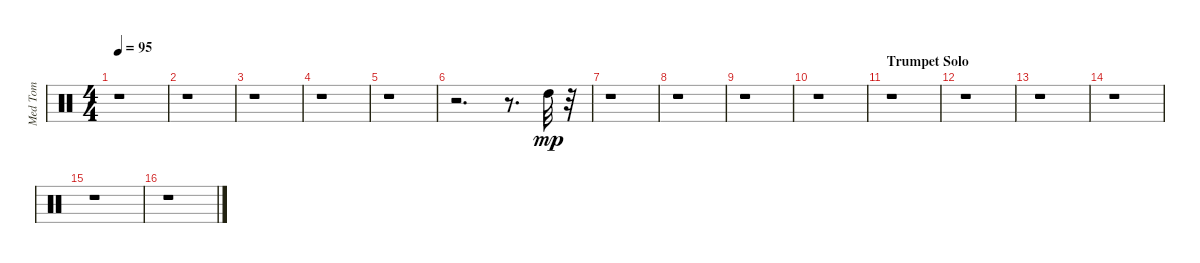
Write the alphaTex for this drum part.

\track ("Med Tom" "Med Tom") {instrument percussion}
\staff {score}
\articulation defaults
\ts (4 4)
\tempo 95
\clef neutral
\ks c
r.1{dy mp} |
r.1 |
r.1 |
r.1 |
r.1 |
r.2{d} r.8{d} "High Tom (hit)".32 r.32 |
r.1 |
r.1 |
r.1 |
r.1 |
\section ("" "Trumpet Solo")
r.1 |
r.1 |
r.1 |
r.1 |
r.1 |
r.1
